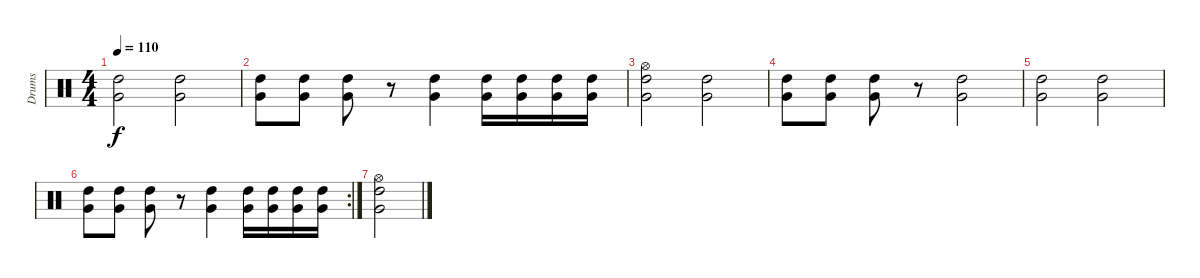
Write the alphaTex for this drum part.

\track ("Drums" "Drums") {instrument percussion}
\staff {score}
\articulation defaults
\ts (4 4)
\tempo 110
\clef neutral
\ks c
("Very Low Tom (hit)" "High Tom (hit)").2{dy f} ("Very Low Tom (hit)" "High Tom (hit)").2 |
("Very Low Tom (hit)" "High Tom (hit)").8 ("Very Low Tom (hit)" "High Tom (hit)").8 ("Very Low Tom (hit)" "High Tom (hit)").8 r.8 ("Very Low Tom (hit)" "High Tom (hit)").4 ("Very Low Tom (hit)" "High Tom (hit)").16 ("Very Low Tom (hit)" "High Tom (hit)").16 ("Very Low Tom (hit)" "High Tom (hit)").16 ("Very Low Tom (hit)" "High Tom (hit)").16 |
("Hi-Hat (open)" "Very Low Tom (hit)" "High Tom (hit)").2 ("Very Low Tom (hit)" "High Tom (hit)").2 |
("Very Low Tom (hit)" "High Tom (hit)").8 ("Very Low Tom (hit)" "High Tom (hit)").8 ("Very Low Tom (hit)" "High Tom (hit)").8 r.8 ("Very Low Tom (hit)" "High Tom (hit)").2 |
("Very Low Tom (hit)" "High Tom (hit)").2 ("Very Low Tom (hit)" "High Tom (hit)").2 |
\rc 2
("Very Low Tom (hit)" "High Tom (hit)").8 ("Very Low Tom (hit)" "High Tom (hit)").8 ("Very Low Tom (hit)" "High Tom (hit)").8 r.8 ("Very Low Tom (hit)" "High Tom (hit)").4 ("Very Low Tom (hit)" "High Tom (hit)").16 ("Very Low Tom (hit)" "High Tom (hit)").16 ("Very Low Tom (hit)" "High Tom (hit)").16 ("Very Low Tom (hit)" "High Tom (hit)").16 |
("Hi-Hat (open)" "Very Low Tom (hit)" "High Tom (hit)").2
